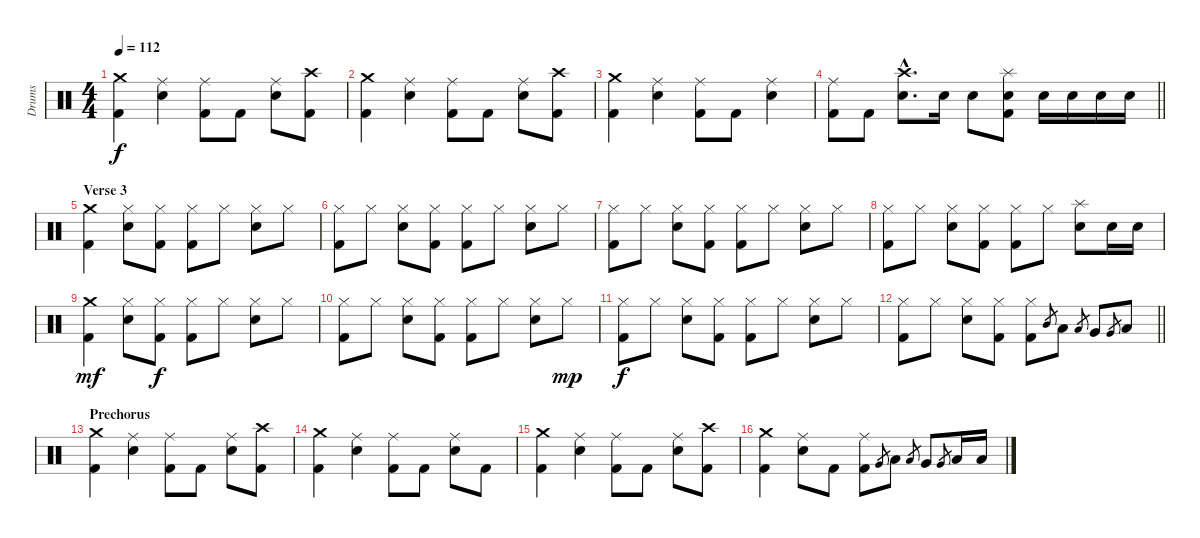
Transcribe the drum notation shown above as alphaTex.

\track ("Drums" "Drums") {instrument percussion}
\staff {score}
\articulation defaults
\ts (4 4)
\tempo 112
\clef neutral
\ks c
("Crash medium (hit)" "Kick (hit) 2").4{dy f} ("Ride (middle)" "Snare (hit) 2").4 ("Ride (middle)" "Kick (hit) 2").8 "Kick (hit) 2".8 ("Ride (middle)" "Snare (hit) 2").8 ("Crash high (hit)" "Kick (hit) 2").8 |
("Crash medium (hit)" "Kick (hit) 2").4 ("Ride (middle)" "Snare (hit) 2").4 ("Ride (middle)" "Kick (hit) 2").8 "Kick (hit) 2".8 ("Ride (middle)" "Snare (hit) 2").8 ("Crash high (hit)" "Kick (hit) 2").8 |
("Crash medium (hit)" "Kick (hit) 2").4 ("Ride (middle)" "Snare (hit) 2").4 ("Ride (middle)" "Kick (hit) 2").8 "Kick (hit) 2".8 ("Ride (middle)" "Snare (hit) 2").4 |
\barLineRight lightlight
("Ride (middle)" "Kick (hit) 2").8 "Kick (hit) 2".8 ("Crash high (hit)"{hac} "Snare (hit) 2"{hac}).8{d} "Snare (hit) 2".16 "Snare (hit) 2".8 ("Splash (hit)" "Snare (hit) 2" "Kick (hit) 2").8 "Snare (hit) 2".16 "Snare (hit) 2".16 "Snare (hit) 2".16 "Snare (hit) 2".16 |
\section ("" "Verse 3")
("Crash medium (hit)" "Kick (hit) 2").4 ("Hi-Hat (closed)" "Snare (hit) 2").8 ("Hi-Hat (closed)" "Kick (hit) 2").8 ("Hi-Hat (closed)" "Kick (hit) 2").8 "Hi-Hat (closed)".8 ("Hi-Hat (closed)" "Snare (hit) 2").8 "Hi-Hat (closed)".8 |
("Hi-Hat (closed)" "Kick (hit) 2").8 "Hi-Hat (closed)".8 ("Hi-Hat (closed)" "Snare (hit) 2").8 ("Hi-Hat (closed)" "Kick (hit) 2").8 ("Hi-Hat (closed)" "Kick (hit) 2").8 "Hi-Hat (closed)".8 ("Hi-Hat (closed)" "Snare (hit) 2").8 "Hi-Hat (closed)".8 |
("Hi-Hat (closed)" "Kick (hit) 2").8 "Hi-Hat (closed)".8 ("Hi-Hat (closed)" "Snare (hit) 2").8 ("Hi-Hat (closed)" "Kick (hit) 2").8 ("Hi-Hat (closed)" "Kick (hit) 2").8 "Hi-Hat (closed)".8 ("Hi-Hat (closed)" "Snare (hit) 2").8 "Hi-Hat (closed)".8 |
("Hi-Hat (closed)" "Kick (hit) 2").8 "Hi-Hat (closed)".8 ("Hi-Hat (closed)" "Snare (hit) 2").8 ("Hi-Hat (closed)" "Kick (hit) 2").8 ("Hi-Hat (closed)" "Kick (hit) 2").8 "Hi-Hat (closed)".8 ("Splash (hit)" "Snare (hit) 2").8 "Snare (hit) 2".16 "Snare (hit) 2".16 |
("Crash medium (hit)" "Kick (hit) 2").4{dy mf} ("Hi-Hat (closed)" "Snare (hit) 2").8 ("Hi-Hat (closed)" "Kick (hit) 2").8{dy f} ("Hi-Hat (closed)" "Kick (hit) 2").8 "Hi-Hat (closed)".8 ("Hi-Hat (closed)" "Snare (hit) 2").8 "Hi-Hat (closed)".8 |
("Hi-Hat (closed)" "Kick (hit) 2").8 "Hi-Hat (closed)".8 ("Hi-Hat (closed)" "Snare (hit) 2").8 ("Hi-Hat (closed)" "Kick (hit) 2").8 ("Hi-Hat (closed)" "Kick (hit) 2").8 "Hi-Hat (closed)".8 ("Hi-Hat (closed)" "Snare (hit) 2").8 "Hi-Hat (closed)".8{dy mp} |
("Hi-Hat (closed)" "Kick (hit) 2").8{dy f} "Hi-Hat (closed)".8 ("Hi-Hat (closed)" "Snare (hit) 2").8 ("Hi-Hat (closed)" "Kick (hit) 2").8 ("Hi-Hat (closed)" "Kick (hit) 2").8 "Hi-Hat (closed)".8 ("Hi-Hat (closed)" "Snare (hit) 2").8 "Hi-Hat (closed)".8 |
\barLineRight lightlight
("Hi-Hat (closed)" "Kick (hit) 2").8 "Hi-Hat (closed)".8 ("Hi-Hat (closed)" "Snare (hit) 2").8 ("Hi-Hat (closed)" "Kick (hit) 2").8 ("Hi-Hat (closed)" "Kick (hit) 2").8 "Mid Tom (hit)".8{gr} "Low Tom (hit)".8 "Low Tom (hit)".8{gr} "Very Low Tom (hit)".8 "Very Low Tom (hit)".8{gr} "Low Floor Tom (hit)".8 |
\section ("" "Prechorus")
("Crash medium (hit)" "Kick (hit) 2").4 ("Ride (middle)" "Snare (hit) 2").4 ("Ride (middle)" "Kick (hit) 2").8 "Kick (hit) 2".8 ("Ride (middle)" "Snare (hit) 2").8 ("Crash high (hit)" "Kick (hit) 2").8 |
("Crash medium (hit)" "Kick (hit) 2").4 ("Ride (middle)" "Snare (hit) 2").4 ("Ride (middle)" "Kick (hit) 2").8 "Kick (hit) 2".8 ("Ride (middle)" "Snare (hit) 2").8 "Kick (hit) 2".8 |
("Crash medium (hit)" "Kick (hit) 2").4 ("Ride (middle)" "Snare (hit) 2").4 ("Ride (middle)" "Kick (hit) 2").8 "Kick (hit) 2".8 ("Ride (middle)" "Snare (hit) 2").8 ("Crash high (hit)" "Kick (hit) 2").8 |
("Crash medium (hit)" "Kick (hit) 2").4 ("Ride (middle)" "Snare (hit) 2").8 "Kick (hit) 2".8 ("Ride (middle)" "Kick (hit) 2").8 "Very Low Tom (hit)".8{gr} "Low Tom (hit)".8 "Low Tom (hit)".8{gr} "Very Low Tom (hit)".8 "Very Low Tom (hit)".8{gr} "Low Floor Tom (hit)".16 "Low Floor Tom (hit)".16
